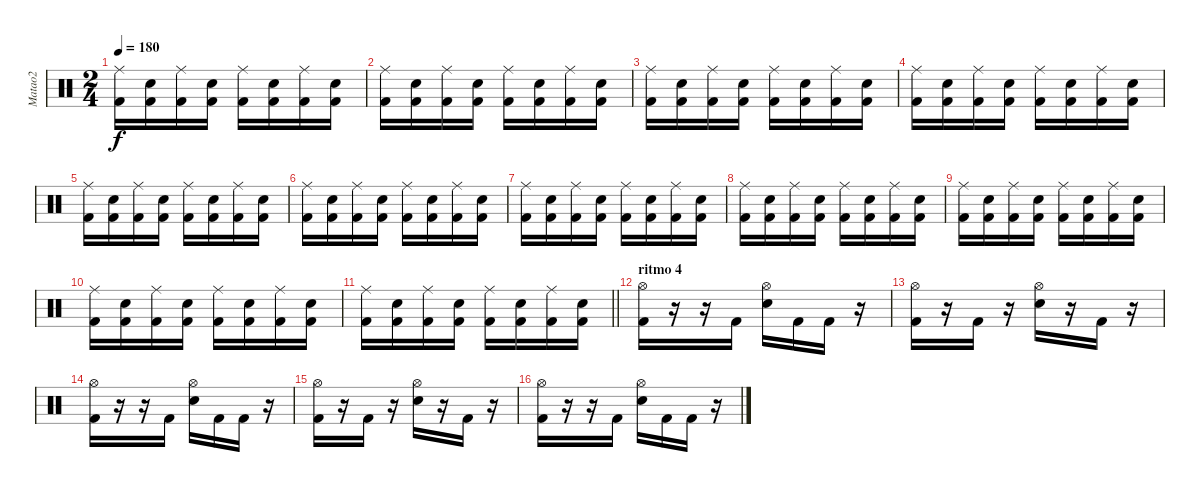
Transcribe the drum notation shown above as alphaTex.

\track ("Matao2" "Matao2") {instrument percussion}
\staff {score}
\articulation defaults
\ts (2 4)
\tempo 180
\clef neutral
\ks c
("Kick (hit) 2" "Ride (middle)").16{dy f} ("Kick (hit) 2" "Electric Snare (hit)").16 ("Kick (hit) 2" "Ride (middle)").16 ("Kick (hit) 2" "Electric Snare (hit)").16 ("Kick (hit) 2" "Ride (middle)").16 ("Kick (hit) 2" "Electric Snare (hit)").16 ("Kick (hit) 2" "Ride (middle)").16 ("Kick (hit) 2" "Electric Snare (hit)").16 |
("Kick (hit) 2" "Ride (middle)").16 ("Kick (hit) 2" "Electric Snare (hit)").16 ("Kick (hit) 2" "Ride (middle)").16 ("Kick (hit) 2" "Electric Snare (hit)").16 ("Kick (hit) 2" "Ride (middle)").16 ("Kick (hit) 2" "Electric Snare (hit)").16 ("Kick (hit) 2" "Ride (middle)").16 ("Kick (hit) 2" "Electric Snare (hit)").16 |
("Kick (hit) 2" "Ride (middle)").16 ("Kick (hit) 2" "Electric Snare (hit)").16 ("Kick (hit) 2" "Ride (middle)").16 ("Kick (hit) 2" "Electric Snare (hit)").16 ("Kick (hit) 2" "Ride (middle)").16 ("Kick (hit) 2" "Electric Snare (hit)").16 ("Kick (hit) 2" "Ride (middle)").16 ("Kick (hit) 2" "Electric Snare (hit)").16 |
("Kick (hit) 2" "Ride (middle)").16 ("Kick (hit) 2" "Electric Snare (hit)").16 ("Kick (hit) 2" "Ride (middle)").16 ("Kick (hit) 2" "Electric Snare (hit)").16 ("Kick (hit) 2" "Ride (middle)").16 ("Kick (hit) 2" "Electric Snare (hit)").16 ("Kick (hit) 2" "Ride (middle)").16 ("Kick (hit) 2" "Electric Snare (hit)").16 |
("Kick (hit) 2" "Ride (middle)").16 ("Kick (hit) 2" "Electric Snare (hit)").16 ("Kick (hit) 2" "Ride (middle)").16 ("Kick (hit) 2" "Electric Snare (hit)").16 ("Kick (hit) 2" "Ride (middle)").16 ("Kick (hit) 2" "Electric Snare (hit)").16 ("Kick (hit) 2" "Ride (middle)").16 ("Kick (hit) 2" "Electric Snare (hit)").16 |
("Kick (hit) 2" "Ride (middle)").16 ("Kick (hit) 2" "Electric Snare (hit)").16 ("Kick (hit) 2" "Ride (middle)").16 ("Kick (hit) 2" "Electric Snare (hit)").16 ("Kick (hit) 2" "Ride (middle)").16 ("Kick (hit) 2" "Electric Snare (hit)").16 ("Kick (hit) 2" "Ride (middle)").16 ("Kick (hit) 2" "Electric Snare (hit)").16 |
("Kick (hit) 2" "Ride (middle)").16 ("Kick (hit) 2" "Electric Snare (hit)").16 ("Kick (hit) 2" "Ride (middle)").16 ("Kick (hit) 2" "Electric Snare (hit)").16 ("Kick (hit) 2" "Ride (middle)").16 ("Kick (hit) 2" "Electric Snare (hit)").16 ("Kick (hit) 2" "Ride (middle)").16 ("Kick (hit) 2" "Electric Snare (hit)").16 |
("Kick (hit) 2" "Ride (middle)").16 ("Kick (hit) 2" "Electric Snare (hit)").16 ("Kick (hit) 2" "Ride (middle)").16 ("Kick (hit) 2" "Electric Snare (hit)").16 ("Kick (hit) 2" "Ride (middle)").16 ("Kick (hit) 2" "Electric Snare (hit)").16 ("Kick (hit) 2" "Ride (middle)").16 ("Kick (hit) 2" "Electric Snare (hit)").16 |
("Kick (hit) 2" "Ride (middle)").16 ("Kick (hit) 2" "Electric Snare (hit)").16 ("Kick (hit) 2" "Ride (middle)").16 ("Kick (hit) 2" "Electric Snare (hit)").16 ("Kick (hit) 2" "Ride (middle)").16 ("Kick (hit) 2" "Electric Snare (hit)").16 ("Kick (hit) 2" "Ride (middle)").16 ("Kick (hit) 2" "Electric Snare (hit)").16 |
("Kick (hit) 2" "Ride (middle)").16 ("Kick (hit) 2" "Electric Snare (hit)").16 ("Kick (hit) 2" "Ride (middle)").16 ("Kick (hit) 2" "Electric Snare (hit)").16 ("Kick (hit) 2" "Ride (middle)").16 ("Kick (hit) 2" "Electric Snare (hit)").16 ("Kick (hit) 2" "Ride (middle)").16 ("Kick (hit) 2" "Electric Snare (hit)").16 |
\barLineRight lightlight
("Kick (hit) 2" "Ride (middle)").16 ("Kick (hit) 2" "Electric Snare (hit)").16 ("Kick (hit) 2" "Ride (middle)").16 ("Kick (hit) 2" "Electric Snare (hit)").16 ("Kick (hit) 2" "Ride (middle)").16 ("Kick (hit) 2" "Electric Snare (hit)").16 ("Kick (hit) 2" "Ride (middle)").16 ("Kick (hit) 2" "Electric Snare (hit)").16 |
\section ("" "ritmo 4")
("Kick (hit) 2" "Hi-Hat (open)").16 r.16 r.16 "Kick (hit) 2".16 ("Electric Snare (hit)" "Hi-Hat (open)").16 "Kick (hit) 2".16 "Kick (hit) 2".16 r.16 |
("Kick (hit) 2" "Hi-Hat (open)").16 r.16 "Kick (hit) 2".16 r.16 ("Electric Snare (hit)" "Hi-Hat (open)").16 r.16 "Kick (hit) 2".16 r.16 |
("Kick (hit) 2" "Hi-Hat (open)").16 r.16 r.16 "Kick (hit) 2".16 ("Electric Snare (hit)" "Hi-Hat (open)").16 "Kick (hit) 2".16 "Kick (hit) 2".16 r.16 |
("Kick (hit) 2" "Hi-Hat (open)").16 r.16 "Kick (hit) 2".16 r.16 ("Electric Snare (hit)" "Hi-Hat (open)").16 r.16 "Kick (hit) 2".16 r.16 |
("Kick (hit) 2" "Hi-Hat (open)").16 r.16 r.16 "Kick (hit) 2".16 ("Electric Snare (hit)" "Hi-Hat (open)").16 "Kick (hit) 2".16 "Kick (hit) 2".16 r.16
